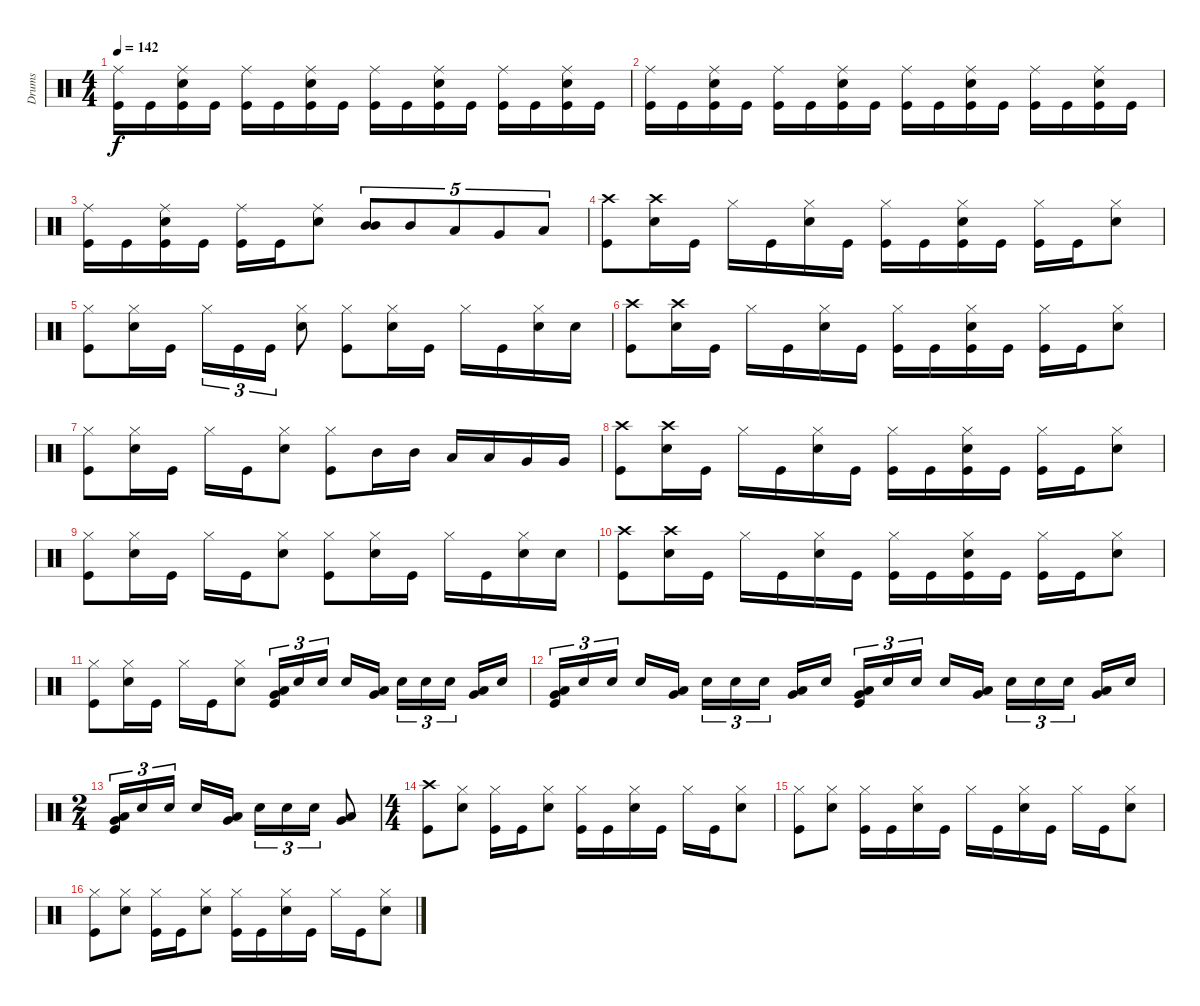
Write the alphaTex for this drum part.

\track ("Drums" "Drums") {instrument percussion}
\staff {score}
\articulation defaults
\ts (4 4)
\tempo 142
\clef neutral
\ks c
("Ride (middle)" "Kick (hit)").16{dy f} "Kick (hit)".16 ("Snare (hit) 2" "Ride (middle)" "Kick (hit)").16 "Kick (hit)".16 ("Ride (middle)" "Kick (hit)").16 "Kick (hit)".16 ("Snare (hit) 2" "Ride (middle)" "Kick (hit)").16 "Kick (hit)".16 ("Ride (middle)" "Kick (hit)").16 "Kick (hit)".16 ("Snare (hit) 2" "Ride (middle)" "Kick (hit)").16 "Kick (hit)".16 ("Ride (middle)" "Kick (hit)").16 "Kick (hit)".16 ("Snare (hit) 2" "Ride (middle)" "Kick (hit)").16 "Kick (hit)".16 |
("Ride (middle)" "Kick (hit)").16 "Kick (hit)".16 ("Snare (hit) 2" "Ride (middle)" "Kick (hit)").16 "Kick (hit)".16 ("Ride (middle)" "Kick (hit)").16 "Kick (hit)".16 ("Snare (hit) 2" "Ride (middle)" "Kick (hit)").16 "Kick (hit)".16 ("Ride (middle)" "Kick (hit)").16 "Kick (hit)".16 ("Snare (hit) 2" "Ride (middle)" "Kick (hit)").16 "Kick (hit)".16 ("Ride (middle)" "Kick (hit)").16 "Kick (hit)".16 ("Snare (hit) 2" "Ride (middle)" "Kick (hit)").16 "Kick (hit)".16 |
("Ride (middle)" "Kick (hit)").16 "Kick (hit)".16 ("Snare (hit) 2" "Ride (middle)" "Kick (hit)").16 "Kick (hit)".16 ("Ride (middle)" "Kick (hit)").16 "Kick (hit)".16 ("Snare (hit) 2" "Ride (middle)").8 ("Mid Tom (hit)" "Mid Tom (hit)").8{tu (5 4)} "Mid Tom (hit)".8{tu (5 4)} "Low Tom (hit)".8{tu (5 4)} "Very Low Tom (hit)".8{tu (5 4)} "Low Floor Tom (hit)".8{tu (5 4)} |
("Crash high (hit)" "Kick (hit)").8 ("Crash high (hit)" "Snare (hit) 2").16 "Kick (hit)".16 "Hi-Hat (closed)".16 "Kick (hit)".16 ("Snare (hit) 2" "Hi-Hat (closed)").16 "Kick (hit)".16 ("Kick (hit)" "Hi-Hat (closed)").16 "Kick (hit)".16 ("Kick (hit)" "Snare (hit) 2" "Hi-Hat (closed)").16 "Kick (hit)".16 ("Kick (hit)" "Hi-Hat (closed)").16 "Kick (hit)".16 ("Snare (hit) 2" "Hi-Hat (closed)").8 |
("Hi-Hat (closed)" "Kick (hit)").8 ("Snare (hit) 2" "Hi-Hat (closed)").16 "Kick (hit)".16 "Hi-Hat (closed)".16{tu (3 2)} "Kick (hit)".16{tu (3 2)} "Kick (hit)".16{tu (3 2)} ("Snare (hit) 2" "Hi-Hat (closed)").8 ("Hi-Hat (closed)" "Kick (hit)").8 ("Snare (hit) 2" "Hi-Hat (closed)").16 "Kick (hit)".16 "Hi-Hat (closed)".16 "Kick (hit)".16 ("Hi-Hat (closed)" "Snare (hit) 2").16 "Snare (hit) 2".16 |
("Crash high (hit)" "Kick (hit)").8 ("Crash high (hit)" "Snare (hit) 2").16 "Kick (hit)".16 "Hi-Hat (closed)".16 "Kick (hit)".16 ("Snare (hit) 2" "Hi-Hat (closed)").16 "Kick (hit)".16 ("Hi-Hat (closed)" "Kick (hit)").16 "Kick (hit)".16 ("Snare (hit) 2" "Hi-Hat (closed)" "Kick (hit)").16 "Kick (hit)".16 ("Hi-Hat (closed)" "Kick (hit)").16 "Kick (hit)".16 ("Snare (hit) 2" "Hi-Hat (closed)").8 |
("Hi-Hat (closed)" "Kick (hit)").8 ("Snare (hit) 2" "Hi-Hat (closed)").16 "Kick (hit)".16 "Hi-Hat (closed)".16 "Kick (hit)".16 ("Snare (hit) 2" "Hi-Hat (closed)").8 ("Hi-Hat (closed)" "Kick (hit)").8 "Mid Tom (hit)".16 "Mid Tom (hit)".16 "Low Tom (hit)".16 "Low Tom (hit)".16 "Very Low Tom (hit)".16 "Very Low Tom (hit)".16 |
("Crash high (hit)" "Kick (hit)").8 ("Crash high (hit)" "Snare (hit) 2").16 "Kick (hit)".16 "Hi-Hat (closed)".16 "Kick (hit)".16 ("Snare (hit) 2" "Hi-Hat (closed)").16 "Kick (hit)".16 ("Kick (hit)" "Hi-Hat (closed)").16 "Kick (hit)".16 ("Kick (hit)" "Snare (hit) 2" "Hi-Hat (closed)").16 "Kick (hit)".16 ("Kick (hit)" "Hi-Hat (closed)").16 "Kick (hit)".16 ("Snare (hit) 2" "Hi-Hat (closed)").8 |
("Hi-Hat (closed)" "Kick (hit)").8 ("Snare (hit) 2" "Hi-Hat (closed)").16 "Kick (hit)".16 "Hi-Hat (closed)".16 "Kick (hit)".16 ("Snare (hit) 2" "Hi-Hat (closed)").8 ("Hi-Hat (closed)" "Kick (hit)").8 ("Snare (hit) 2" "Hi-Hat (closed)").16 "Kick (hit)".16 "Hi-Hat (closed)".16 "Kick (hit)".16 ("Hi-Hat (closed)" "Snare (hit) 2").16 "Snare (hit) 2".16 |
("Crash high (hit)" "Kick (hit)").8 ("Crash high (hit)" "Snare (hit) 2").16 "Kick (hit)".16 "Hi-Hat (closed)".16 "Kick (hit)".16 ("Snare (hit) 2" "Hi-Hat (closed)").16 "Kick (hit)".16 ("Hi-Hat (closed)" "Kick (hit)").16 "Kick (hit)".16 ("Snare (hit) 2" "Hi-Hat (closed)" "Kick (hit)").16 "Kick (hit)".16 ("Hi-Hat (closed)" "Kick (hit)").16 "Kick (hit)".16 ("Snare (hit) 2" "Hi-Hat (closed)").8 |
("Hi-Hat (closed)" "Kick (hit)").8 ("Snare (hit) 2" "Hi-Hat (closed)").16 "Kick (hit)".16 "Hi-Hat (closed)".16 "Kick (hit)".16 ("Snare (hit) 2" "Hi-Hat (closed)").8 ("Low Tom (hit)" "Very Low Tom (hit)" "Kick (hit)").16{tu (3 2)} "Snare (hit) 2".16{tu (3 2)} "Snare (hit) 2".16{tu (3 2)} "Snare (hit) 2".16 ("Low Tom (hit)" "Very Low Tom (hit)").16 "Snare (hit) 2".16{tu (3 2)} "Snare (hit) 2".16{tu (3 2)} "Snare (hit) 2".16{tu (3 2)} ("Low Tom (hit)" "Very Low Tom (hit)").16 "Snare (hit) 2".16 |
("Low Tom (hit)" "Very Low Tom (hit)" "Kick (hit)").16{tu (3 2)} "Snare (hit) 2".16{tu (3 2)} "Snare (hit) 2".16{tu (3 2)} "Snare (hit) 2".16 ("Low Tom (hit)" "Very Low Tom (hit)").16 "Snare (hit) 2".16{tu (3 2)} "Snare (hit) 2".16{tu (3 2)} "Snare (hit) 2".16{tu (3 2)} ("Low Tom (hit)" "Very Low Tom (hit)").16 "Snare (hit) 2".16 ("Low Tom (hit)" "Very Low Tom (hit)" "Kick (hit)").16{tu (3 2)} "Snare (hit) 2".16{tu (3 2)} "Snare (hit) 2".16{tu (3 2)} "Snare (hit) 2".16 ("Low Tom (hit)" "Very Low Tom (hit)").16 "Snare (hit) 2".16{tu (3 2)} "Snare (hit) 2".16{tu (3 2)} "Snare (hit) 2".16{tu (3 2)} ("Low Tom (hit)" "Very Low Tom (hit)").16 "Snare (hit) 2".16 |
\ts (2 4)
("Low Tom (hit)" "Very Low Tom (hit)" "Kick (hit)").16{tu (3 2)} "Snare (hit) 2".16{tu (3 2)} "Snare (hit) 2".16{tu (3 2)} "Snare (hit) 2".16 ("Low Tom (hit)" "Very Low Tom (hit)").16 "Snare (hit) 2".16{tu (3 2)} "Snare (hit) 2".16{tu (3 2)} "Snare (hit) 2".16{tu (3 2)} ("Low Tom (hit)" "Very Low Tom (hit)").8 |
\ts (4 4)
("Crash high (hit)" "Kick (hit)").8 ("Snare (hit) 2" "Hi-Hat (closed)").8 ("Kick (hit)" "Hi-Hat (closed)").16 "Kick (hit)".16 ("Hi-Hat (closed)" "Snare (hit) 2").8 ("Hi-Hat (closed)" "Kick (hit)").16 "Kick (hit)".16 ("Snare (hit) 2" "Hi-Hat (closed)").16 "Kick (hit)".16 "Hi-Hat (closed)".16 "Kick (hit)".16 ("Hi-Hat (closed)" "Snare (hit) 2").8 |
("Hi-Hat (closed)" "Kick (hit)").8 ("Snare (hit) 2" "Hi-Hat (closed)").8 ("Kick (hit)" "Hi-Hat (closed)").16 "Kick (hit)".16 ("Snare (hit) 2" "Hi-Hat (closed)").16 "Kick (hit)".16 "Hi-Hat (closed)".16 "Kick (hit)".16 ("Snare (hit) 2" "Hi-Hat (closed)").16 "Kick (hit)".16 "Hi-Hat (closed)".16 "Kick (hit)".16 ("Snare (hit) 2" "Hi-Hat (closed)").8 |
("Hi-Hat (closed)" "Kick (hit)").8 ("Snare (hit) 2" "Hi-Hat (closed)").8 ("Kick (hit)" "Hi-Hat (closed)").16 "Kick (hit)".16 ("Hi-Hat (closed)" "Snare (hit) 2").8 ("Hi-Hat (closed)" "Kick (hit)").16 "Kick (hit)".16 ("Snare (hit) 2" "Hi-Hat (closed)").16 "Kick (hit)".16 "Hi-Hat (closed)".16 "Kick (hit)".16 ("Hi-Hat (closed)" "Snare (hit) 2").8
